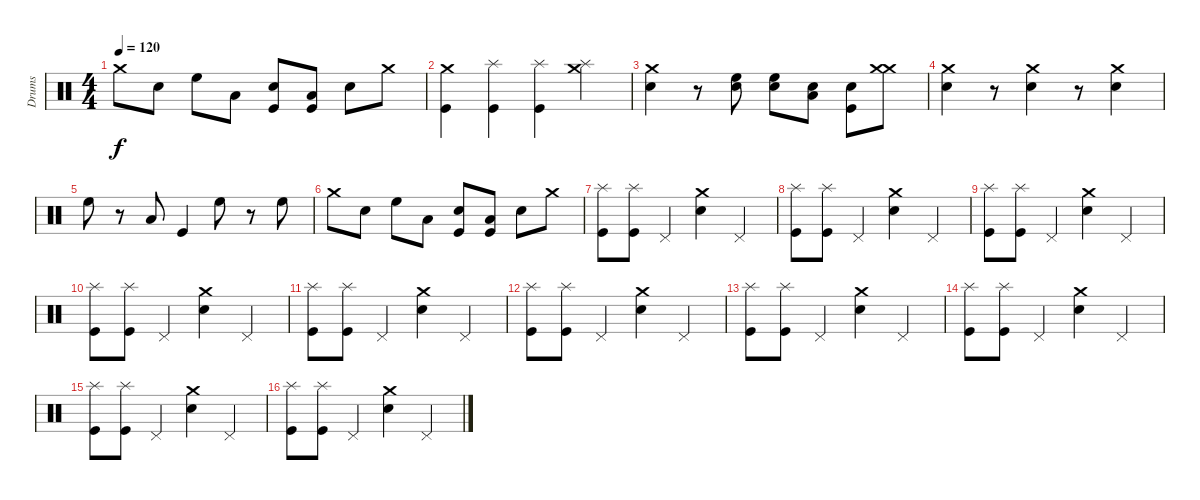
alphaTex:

\track ("Drums" "Drums") {instrument percussion}
\staff {score}
\articulation defaults
\ts (4 4)
\tempo 120
\clef neutral
\ks c "Crash medium (hit)".8{dy f} "Snare (hit) 2".8 "High Floor Tom (hit)".8 "Low Floor Tom (hit)".8
("Kick (hit)" "Snare (hit) 2").8 ("Kick (hit)" "Low Floor Tom (hit)").8 "Snare (hit) 2".8 "Crash medium (hit)".8 |
("Kick (hit)" "Crash medium (hit)").4 ("Kick (hit)" "Splash (hit)").4 ("Kick (hit)" "Splash (hit)").4 ("Crash medium (hit)" "Splash (hit)").4 |
("Snare (hit) 2" "Crash medium (hit)").4 r.8 ("High Floor Tom (hit)" "Snare (hit)").8 ("High Floor Tom (hit)" "Snare (hit)").8 ("Low Floor Tom (hit)" "Snare (hit)").8 ("Snare (hit) 2" "Kick (hit)").8 ("Crash medium (hit)" "Crash medium (hit)").8 |
("Crash medium (hit)" "Snare (hit) 2").4 r.8 ("Crash medium (hit)" "Snare (hit) 2").4 r.8 ("Crash medium (hit)" "Snare (hit) 2").4 |
"High Floor Tom (hit)".8 r.8 "Low Floor Tom (hit)".8 "Kick (hit)".4 "High Floor Tom (hit)".8 r.8 "High Floor Tom (hit)".8 |
"Crash medium (hit)".8 "Snare (hit) 2".8 "High Floor Tom (hit)".8 "Low Floor Tom (hit)".8 ("Kick (hit)" "Snare (hit) 2").8 ("Kick (hit)" "Low Floor Tom (hit)").8 "Snare (hit) 2".8 "Crash medium (hit)".8 |
("Splash (hit)" "Kick (hit)").8 ("Splash (hit)" "Kick (hit)").8 "Pedal Hi-Hat (hit)".4 ("Crash medium (hit)" "Snare (hit) 2").4 "Pedal Hi-Hat (hit)".4 |
("Splash (hit)" "Kick (hit)").8 ("Splash (hit)" "Kick (hit)").8 "Pedal Hi-Hat (hit)".4 ("Crash medium (hit)" "Snare (hit) 2").4 "Pedal Hi-Hat (hit)".4 |
("Splash (hit)" "Kick (hit)").8 ("Splash (hit)" "Kick (hit)").8 "Pedal Hi-Hat (hit)".4 ("Crash medium (hit)" "Snare (hit) 2").4 "Pedal Hi-Hat (hit)".4 |
("Splash (hit)" "Kick (hit)").8 ("Splash (hit)" "Kick (hit)").8 "Pedal Hi-Hat (hit)".4 ("Crash medium (hit)" "Snare (hit) 2").4 "Pedal Hi-Hat (hit)".4 |
("Splash (hit)" "Kick (hit)").8 ("Splash (hit)" "Kick (hit)").8 "Pedal Hi-Hat (hit)".4 ("Crash medium (hit)" "Snare (hit) 2").4 "Pedal Hi-Hat (hit)".4 |
("Splash (hit)" "Kick (hit)").8 ("Splash (hit)" "Kick (hit)").8 "Pedal Hi-Hat (hit)".4 ("Crash medium (hit)" "Snare (hit) 2").4 "Pedal Hi-Hat (hit)".4 |
("Splash (hit)" "Kick (hit)").8 ("Splash (hit)" "Kick (hit)").8 "Pedal Hi-Hat (hit)".4 ("Crash medium (hit)" "Snare (hit) 2").4 "Pedal Hi-Hat (hit)".4 |
("Splash (hit)" "Kick (hit)").8 ("Splash (hit)" "Kick (hit)").8 "Pedal Hi-Hat (hit)".4 ("Crash medium (hit)" "Snare (hit) 2").4 "Pedal Hi-Hat (hit)".4 |
("Splash (hit)" "Kick (hit)").8 ("Splash (hit)" "Kick (hit)").8 "Pedal Hi-Hat (hit)".4 ("Crash medium (hit)" "Snare (hit) 2").4 "Pedal Hi-Hat (hit)".4 |
("Splash (hit)" "Kick (hit)").8 ("Splash (hit)" "Kick (hit)").8 "Pedal Hi-Hat (hit)".4 ("Crash medium (hit)" "Snare (hit) 2").4 "Pedal Hi-Hat (hit)".4
